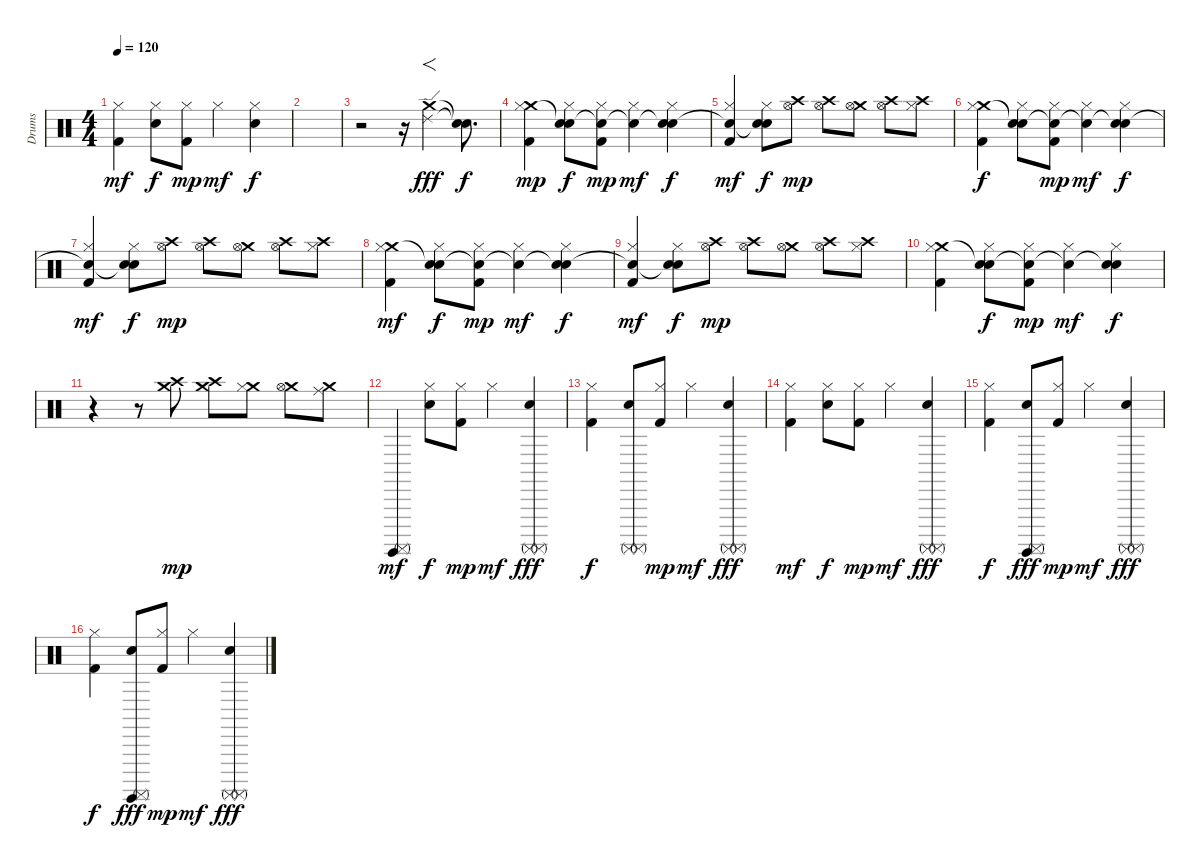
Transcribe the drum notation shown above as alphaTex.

\track ("Drums" "Drums") {instrument percussion}
\staff {score}
\articulation defaults
\ts (4 4)
\tempo 120
\clef neutral
\ks c
("Kick (hit) 2" "Hi-Hat (closed)").4{dy mf} ("Snare (hit) 2" "Hi-Hat (closed)").8{dy f} ("Kick (hit) 2" "Hi-Hat (closed)").8{dy mp} "Hi-Hat (closed)".4{dy mf volume 13} ("Snare (hit) 2" "Hi-Hat (closed)").4{dy f} |
|
r.2 r.16 ("Crash medium (hit)" "Ride (edge) 2").4{f dy fff} ("Snare (hit)"{t} "Snare (hit)"{t}).8{d dy f} |
("Crash medium (hit)" "Kick (hit) 2" "Hi-Hat (closed)").4{dy mp} ("Snare (hit)"{t} "Snare (hit) 2" "Hi-Hat (closed)").8{dy f} ("Snare (hit)"{t} "Kick (hit) 2" "Hi-Hat (closed)").8{dy mp} ("Snare (hit)"{t} "Hi-Hat (closed)").4{dy mf volume 13} ("Snare (hit)"{t} "Snare (hit) 2" "Hi-Hat (closed)").4{dy f} |
("Snare (hit)"{t} "Kick (hit) 2" "Hi-Hat (closed)").4{dy mf} ("Snare (hit)"{t} "Snare (hit) 2" "Hi-Hat (closed)").8{dy f} ("Crash high (hit)" "Hi-Hat (open)").8{dy mp} ("Crash high (hit)" "Hi-Hat (open)").8{volume 13} ("Crash medium (hit)" "Hi-Hat (open)").8 ("Crash high (hit)" "Hi-Hat (open)").8 ("Crash high (hit)" "Hi-Hat (closed)").8 |
("Crash medium (hit)" "Kick (hit) 2" "Hi-Hat (closed)").4{dy f} ("Snare (hit)"{t} "Snare (hit) 2" "Hi-Hat (closed)").8 ("Snare (hit)"{t} "Kick (hit) 2" "Hi-Hat (closed)").8{dy mp} ("Snare (hit)"{t} "Hi-Hat (closed)").4{dy mf volume 13} ("Snare (hit)"{t} "Snare (hit) 2" "Hi-Hat (closed)").4{dy f} |
("Snare (hit)"{t} "Kick (hit) 2" "Hi-Hat (closed)").4{dy mf} ("Snare (hit)"{t} "Snare (hit) 2" "Hi-Hat (closed)").8{dy f} ("Crash high (hit)" "Hi-Hat (open)").8{dy mp} ("Crash high (hit)" "Hi-Hat (open)").8{volume 13} ("Crash medium (hit)" "Hi-Hat (open)").8 ("Crash high (hit)" "Hi-Hat (open)").8 ("Crash high (hit)" "Hi-Hat (closed)").8 |
("Crash medium (hit)" "Kick (hit) 2" "Hi-Hat (closed)").4{dy mf} ("Snare (hit)"{t} "Snare (hit) 2" "Hi-Hat (closed)").8{dy f} ("Snare (hit)"{t} "Kick (hit) 2" "Hi-Hat (closed)").8{dy mp} ("Snare (hit)"{t} "Hi-Hat (closed)").4{dy mf volume 13} ("Snare (hit)"{t} "Snare (hit) 2" "Hi-Hat (closed)").4{dy f} |
("Snare (hit)"{t} "Kick (hit) 2" "Hi-Hat (closed)").4{dy mf} ("Snare (hit)"{t} "Snare (hit) 2" "Hi-Hat (closed)").8{dy f} ("Crash high (hit)" "Hi-Hat (open)").8{dy mp} ("Crash high (hit)" "Hi-Hat (open)").8{volume 13} ("Crash medium (hit)" "Hi-Hat (open)").8 ("Crash high (hit)" "Hi-Hat (open)").8 ("Crash high (hit)" "Hi-Hat (closed)").8 |
("Crash medium (hit)" "Kick (hit) 2" "Hi-Hat (closed)").4 ("Snare (hit)"{t} "Snare (hit) 2" "Hi-Hat (closed)").8{dy f} ("Snare (hit)"{t} "Kick (hit) 2" "Hi-Hat (closed)").8{dy mp} ("Snare (hit)"{t} "Hi-Hat (closed)").4{dy mf volume 13} ("Snare (hit)"{t} "Snare (hit) 2" "Hi-Hat (closed)").4{dy f} |
r.4 r.8 ("Crash medium (hit)" "Crash high (hit)").8{dy mp} ("Crash medium (hit)" "Crash high (hit)").8 ("Crash medium (hit)" "Hi-Hat (closed)").8 ("Crash medium (hit)" "Hi-Hat (open)").8 ("Crash medium (hit)" "Ride (middle)").8 |
("Surdo (hit)" "Surdo (mute)").4{dy mf} ("Snare (hit) 2" "Hi-Hat (closed)").8{dy f} ("Kick (hit) 2" "Hi-Hat (closed)").8{dy mp} "Hi-Hat (closed)".4{dy mf volume 13} ("Snare (hit) 2" "Surdo (mute)" "Surdo (mute)").4{dy fff} |
("Kick (hit) 2" "Hi-Hat (closed)").4{dy f} ("Snare (hit) 2" "Surdo (mute)" "Surdo (mute)").8 ("Kick (hit) 2" "Hi-Hat (closed)").8{dy mp} "Hi-Hat (closed)".4{dy mf volume 13} ("Snare (hit) 2" "Surdo (mute)" "Surdo (mute)").4{dy fff} |
("Kick (hit) 2" "Hi-Hat (closed)").4{dy mf} ("Snare (hit) 2" "Hi-Hat (closed)").8{dy f} ("Kick (hit) 2" "Hi-Hat (closed)").8{dy mp} "Hi-Hat (closed)".4{dy mf volume 13} ("Snare (hit) 2" "Surdo (mute)" "Surdo (mute)").4{dy fff} |
("Kick (hit) 2" "Hi-Hat (closed)").4{dy f} ("Snare (hit) 2" "Surdo (mute)" "Surdo (hit)").8{dy fff} ("Kick (hit) 2" "Hi-Hat (closed)").8{dy mp} "Hi-Hat (closed)".4{dy mf volume 13} ("Snare (hit) 2" "Surdo (mute)" "Surdo (mute)").4{dy fff} |
("Kick (hit) 2" "Hi-Hat (closed)").4{dy f} ("Snare (hit) 2" "Surdo (mute)" "Surdo (hit)").8{dy fff} ("Kick (hit) 2" "Hi-Hat (closed)").8{dy mp} "Hi-Hat (closed)".4{dy mf volume 13} ("Snare (hit) 2" "Surdo (mute)" "Surdo (mute)").4{dy fff}
